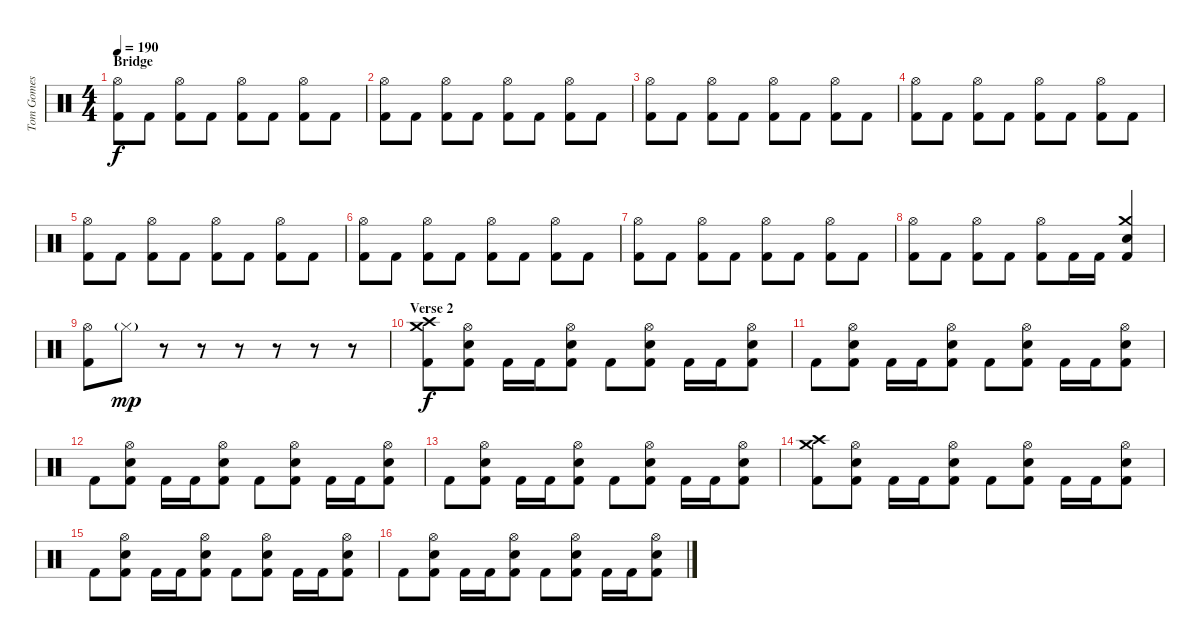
\track ("Tom Gomes" "Tom Gomes") {instrument percussion}
\staff {score}
\articulation defaults
\ts (4 4)
\section ("" "Bridge")
\tempo 190
\clef neutral
\ks c
("Hi-Hat (open)" "Kick (hit) 2").8{dy f} "Kick (hit) 2".8 ("Hi-Hat (open)" "Kick (hit) 2").8 "Kick (hit) 2".8 ("Hi-Hat (open)" "Kick (hit) 2").8 "Kick (hit) 2".8 ("Hi-Hat (open)" "Kick (hit) 2").8 "Kick (hit) 2".8 |
("Hi-Hat (open)" "Kick (hit) 2").8 "Kick (hit) 2".8 ("Hi-Hat (open)" "Kick (hit) 2").8 "Kick (hit) 2".8 ("Hi-Hat (open)" "Kick (hit) 2").8 "Kick (hit) 2".8 ("Hi-Hat (open)" "Kick (hit) 2").8 "Kick (hit) 2".8 |
("Hi-Hat (open)" "Kick (hit) 2").8 "Kick (hit) 2".8 ("Hi-Hat (open)" "Kick (hit) 2").8 "Kick (hit) 2".8 ("Hi-Hat (open)" "Kick (hit) 2").8 "Kick (hit) 2".8 ("Hi-Hat (open)" "Kick (hit) 2").8 "Kick (hit) 2".8 |
("Hi-Hat (open)" "Kick (hit) 2").8 "Kick (hit) 2".8 ("Hi-Hat (open)" "Kick (hit) 2").8 "Kick (hit) 2".8 ("Hi-Hat (open)" "Kick (hit) 2").8 "Kick (hit) 2".8 ("Hi-Hat (open)" "Kick (hit) 2").8 "Kick (hit) 2".8 |
("Hi-Hat (open)" "Kick (hit) 2").8 "Kick (hit) 2".8 ("Hi-Hat (open)" "Kick (hit) 2").8 "Kick (hit) 2".8 ("Hi-Hat (open)" "Kick (hit) 2").8 "Kick (hit) 2".8 ("Hi-Hat (open)" "Kick (hit) 2").8 "Kick (hit) 2".8 |
("Hi-Hat (open)" "Kick (hit) 2").8 "Kick (hit) 2".8 ("Hi-Hat (open)" "Kick (hit) 2").8 "Kick (hit) 2".8 ("Hi-Hat (open)" "Kick (hit) 2").8 "Kick (hit) 2".8 ("Hi-Hat (open)" "Kick (hit) 2").8 "Kick (hit) 2".8 |
("Hi-Hat (open)" "Kick (hit) 2").8 "Kick (hit) 2".8 ("Hi-Hat (open)" "Kick (hit) 2").8 "Kick (hit) 2".8 ("Hi-Hat (open)" "Kick (hit) 2").8 "Kick (hit) 2".8 ("Hi-Hat (open)" "Kick (hit) 2").8 "Kick (hit) 2".8 |
("Hi-Hat (open)" "Kick (hit) 2").8 "Kick (hit) 2".8 ("Hi-Hat (open)" "Kick (hit) 2").8 "Kick (hit) 2".8 ("Hi-Hat (open)" "Kick (hit) 2").8 "Kick (hit) 2".16 "Kick (hit) 2".16 ("Crash medium (hit)" "Snare (hit) 2" "Kick (hit) 2").4 |
("Hi-Hat (open)" "Kick (hit) 2").8 "Hi-Hat (closed)"{g}.8{dy mp} r.8 r.8 r.8 r.8 r.8 r.8 |
\section ("" "Verse 2")
("Crash high (hit)" "Crash medium (hit)" "Kick (hit) 2").8{dy f} ("Hi-Hat (open)" "Snare (hit) 2" "Kick (hit) 2").8 "Kick (hit) 2".16 "Kick (hit) 2".16 ("Hi-Hat (open)" "Snare (hit) 2" "Kick (hit) 2").8 "Kick (hit) 2".8 ("Hi-Hat (open)" "Snare (hit) 2" "Kick (hit) 2").8 "Kick (hit) 2".16 "Kick (hit) 2".16 ("Hi-Hat (open)" "Snare (hit) 2" "Kick (hit) 2").8 |
"Kick (hit) 2".8 ("Hi-Hat (open)" "Snare (hit) 2" "Kick (hit) 2").8 "Kick (hit) 2".16 "Kick (hit) 2".16 ("Hi-Hat (open)" "Snare (hit) 2" "Kick (hit) 2").8 "Kick (hit) 2".8 ("Hi-Hat (open)" "Snare (hit) 2" "Kick (hit) 2").8 "Kick (hit) 2".16 "Kick (hit) 2".16 ("Hi-Hat (open)" "Snare (hit) 2" "Kick (hit) 2").8 |
"Kick (hit) 2".8 ("Hi-Hat (open)" "Snare (hit) 2" "Kick (hit) 2").8 "Kick (hit) 2".16 "Kick (hit) 2".16 ("Hi-Hat (open)" "Snare (hit) 2" "Kick (hit) 2").8 "Kick (hit) 2".8 ("Hi-Hat (open)" "Snare (hit) 2" "Kick (hit) 2").8 "Kick (hit) 2".16 "Kick (hit) 2".16 ("Hi-Hat (open)" "Snare (hit) 2" "Kick (hit) 2").8 |
"Kick (hit) 2".8 ("Hi-Hat (open)" "Snare (hit) 2" "Kick (hit) 2").8 "Kick (hit) 2".16 "Kick (hit) 2".16 ("Hi-Hat (open)" "Snare (hit) 2" "Kick (hit) 2").8 "Kick (hit) 2".8 ("Hi-Hat (open)" "Snare (hit) 2" "Kick (hit) 2").8 "Kick (hit) 2".16 "Kick (hit) 2".16 ("Hi-Hat (open)" "Snare (hit) 2" "Kick (hit) 2").8 |
("Crash high (hit)" "Crash medium (hit)" "Kick (hit) 2").8 ("Hi-Hat (open)" "Snare (hit) 2" "Kick (hit) 2").8 "Kick (hit) 2".16 "Kick (hit) 2".16 ("Hi-Hat (open)" "Snare (hit) 2" "Kick (hit) 2").8 "Kick (hit) 2".8 ("Hi-Hat (open)" "Snare (hit) 2" "Kick (hit) 2").8 "Kick (hit) 2".16 "Kick (hit) 2".16 ("Hi-Hat (open)" "Snare (hit) 2" "Kick (hit) 2").8 |
"Kick (hit) 2".8 ("Hi-Hat (open)" "Snare (hit) 2" "Kick (hit) 2").8 "Kick (hit) 2".16 "Kick (hit) 2".16 ("Hi-Hat (open)" "Snare (hit) 2" "Kick (hit) 2").8 "Kick (hit) 2".8 ("Hi-Hat (open)" "Snare (hit) 2" "Kick (hit) 2").8 "Kick (hit) 2".16 "Kick (hit) 2".16 ("Hi-Hat (open)" "Snare (hit) 2" "Kick (hit) 2").8 |
"Kick (hit) 2".8 ("Hi-Hat (open)" "Snare (hit) 2" "Kick (hit) 2").8 "Kick (hit) 2".16 "Kick (hit) 2".16 ("Hi-Hat (open)" "Snare (hit) 2" "Kick (hit) 2").8 "Kick (hit) 2".8 ("Hi-Hat (open)" "Snare (hit) 2" "Kick (hit) 2").8 "Kick (hit) 2".16 "Kick (hit) 2".16 ("Hi-Hat (open)" "Snare (hit) 2" "Kick (hit) 2").8
